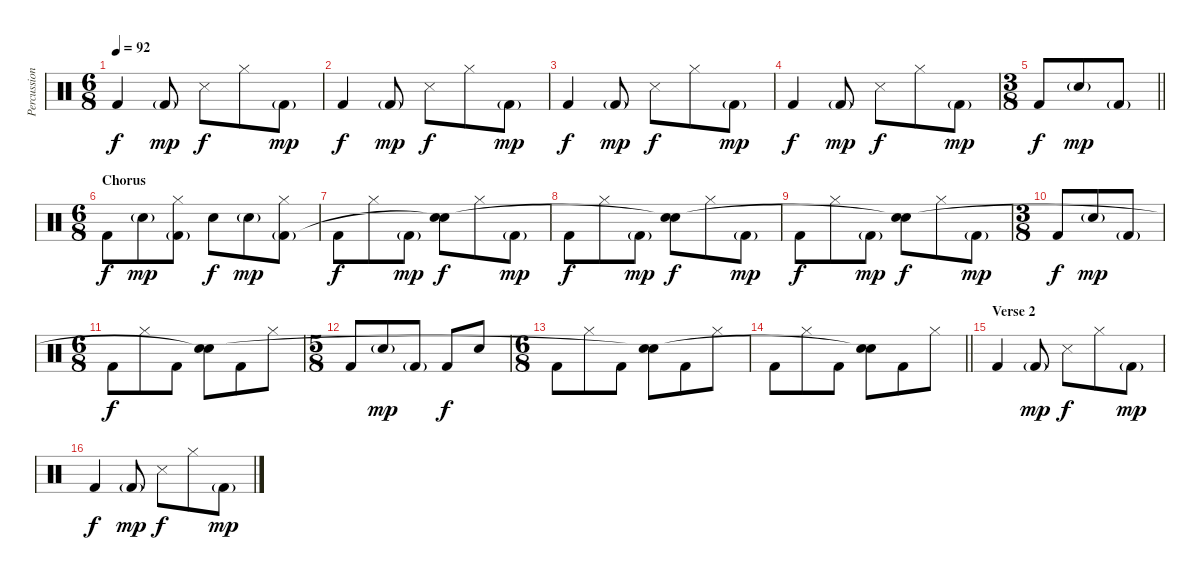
\track ("Percussion" "Percussion") {instrument percussion}
\staff {score}
\articulation defaults
\ts (6 8)
\tempo 92
\clef neutral
\ks c "Kick (hit) 2".4{dy f} "Kick (hit) 2"{g}.8{dy mp} "Snare (side stick) 3".8{dy f} "Hi-Hat (closed)".8 "Kick (hit) 2"{g}.8{dy mp}
|
"Kick (hit) 2".4{dy f} "Kick (hit) 2"{g}.8{dy mp} "Snare (side stick) 3".8{dy f} "Hi-Hat (closed)".8 "Kick (hit) 2"{g}.8{dy mp} |
"Kick (hit) 2".4{dy f} "Kick (hit) 2"{g}.8{dy mp} "Snare (side stick) 3".8{dy f} "Hi-Hat (closed)".8 "Kick (hit) 2"{g}.8{dy mp} |
"Kick (hit) 2".4{dy f} "Kick (hit) 2"{g}.8{dy mp} "Snare (side stick) 3".8{dy f} "Hi-Hat (closed)".8 "Kick (hit) 2"{g}.8{dy mp} |
\ts (3 8)
\barLineRight lightlight "Kick (hit) 2".8{dy f} "Snare (hit) 2"{g}.8{dy mp} "Kick (hit) 2"{g}.8
|
\ts (6 8)
\section ("" "Chorus")
"Kick (hit) 2".8{dy f} "Snare (hit) 2"{g}.8{dy mp} ("Hi-Hat (closed)" "Kick (hit) 2"{g}).8 "Snare (hit) 2".8{dy f} "Snare (hit) 2"{g}.8{dy mp} ("Hi-Hat (closed)" "Kick (hit) 2"{g}).8 |
"Kick (hit) 2".8{dy f} "Hi-Hat (closed)".8 "Kick (hit) 2"{g}.8{dy mp} ("Snare (hit) 2" "Snare (hit)"{t}).8{dy f} "Hi-Hat (closed)".8 "Kick (hit) 2"{g}.8{dy mp} |
"Kick (hit) 2".8{dy f} "Hi-Hat (closed)".8 "Kick (hit) 2"{g}.8{dy mp} ("Snare (hit) 2" "Snare (hit)"{t}).8{dy f} "Hi-Hat (closed)".8 "Kick (hit) 2"{g}.8{dy mp} |
"Kick (hit) 2".8{dy f} "Hi-Hat (closed)".8 "Kick (hit) 2"{g}.8{dy mp} ("Snare (hit) 2" "Snare (hit)"{t}).8{dy f} "Hi-Hat (closed)".8 "Kick (hit) 2"{g}.8{dy mp} |
\ts (3 8)
"Kick (hit) 2".8{dy f} "Snare (hit) 2"{g}.8{dy mp} "Kick (hit) 2"{g}.8 |
\ts (6 8)
"Kick (hit) 2".8{dy f} "Hi-Hat (closed)".8 "Kick (hit) 2".8 ("Snare (hit) 2" "Snare (hit)"{t}).8 "Kick (hit) 2".8 "Hi-Hat (closed)".8 |
\ts (5 8)
"Kick (hit) 2".8 "Snare (hit) 2"{g}.8{dy mp} "Kick (hit) 2"{g}.8 "Kick (hit) 2".8{dy f} "Snare (hit) 2".8 |
\ts (6 8)
"Kick (hit) 2".8 "Hi-Hat (closed)".8 "Kick (hit) 2".8 ("Snare (hit) 2" "Snare (hit)"{t}).8 "Kick (hit) 2".8 "Hi-Hat (closed)".8 |
\barLineRight lightlight "Kick (hit) 2".8 "Hi-Hat (closed)".8 "Kick (hit) 2".8
("Snare (hit) 2" "Snare (hit)"{t}).8 "Kick (hit) 2".8 "Hi-Hat (closed)".8 |
\section ("" "Verse 2")
"Kick (hit) 2".4 "Kick (hit) 2"{g}.8{dy mp} "Snare (side stick) 3".8{dy f} "Hi-Hat (closed)".8 "Kick (hit) 2"{g}.8{dy mp} |
"Kick (hit) 2".4{dy f} "Kick (hit) 2"{g}.8{dy mp} "Snare (side stick) 3".8{dy f} "Hi-Hat (closed)".8 "Kick (hit) 2"{g}.8{dy mp}
